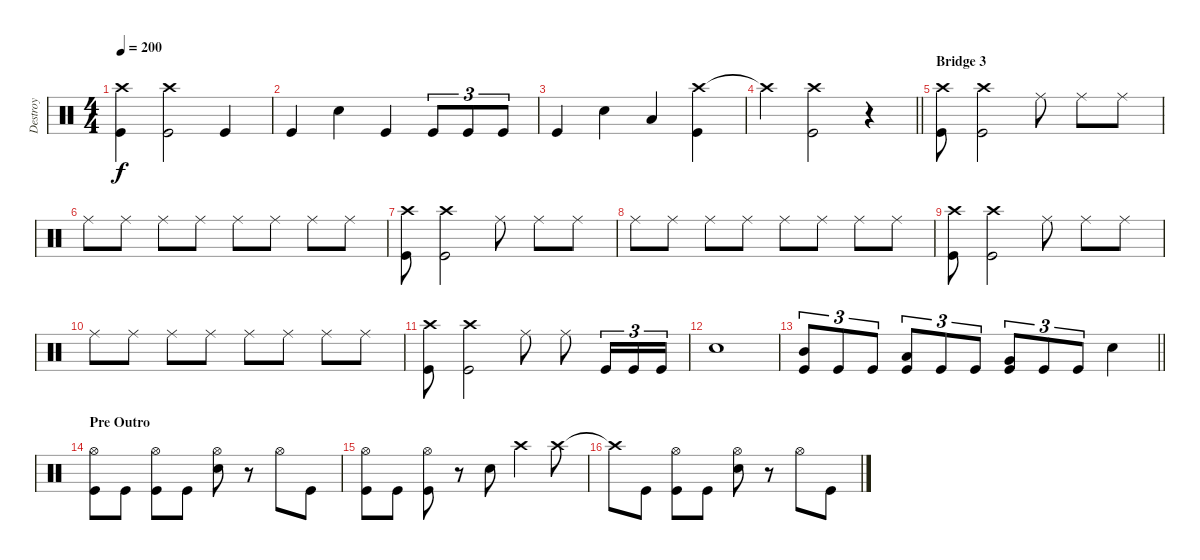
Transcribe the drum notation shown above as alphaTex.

\track ("Destroy" "Destroy") {instrument percussion}
\staff {score}
\articulation defaults
\ts (4 4)
\tempo 200
\clef neutral
\ks c
("Crash high (hit)" "Kick (hit)").4{dy f} ("Crash high (hit)" "Kick (hit)").2 "Kick (hit)".4 |
"Kick (hit)".4 "Snare (hit) 2".4 "Kick (hit)".4 "Kick (hit)".8{tu (3 2)} "Kick (hit)".8{tu (3 2)} "Kick (hit)".8{tu (3 2)} |
"Kick (hit)".4 "Snare (hit) 2".4 "Low Tom (hit)".4 ("Crash high (hit)" "Kick (hit)").4 |
\barLineRight lightlight "Crash high (hit)"{t}.4
("Crash high (hit)" "Kick (hit)").2 r.4 |
\section ("" "Bridge 3")
("Crash high (hit)" "Kick (hit)").8 ("Crash high (hit)" "Kick (hit)").2 "Ride (middle)".8 "Ride (middle)".8 "Ride (middle)".8 |
"Ride (middle)".8 "Ride (middle)".8 "Ride (middle)".8 "Ride (middle)".8 "Ride (middle)".8 "Ride (middle)".8 "Ride (middle)".8 "Ride (middle)".8 |
("Crash high (hit)" "Kick (hit)").8 ("Crash high (hit)" "Kick (hit)").2 "Ride (middle)".8 "Ride (middle)".8 "Ride (middle)".8 |
"Ride (middle)".8 "Ride (middle)".8 "Ride (middle)".8 "Ride (middle)".8 "Ride (middle)".8 "Ride (middle)".8 "Ride (middle)".8 "Ride (middle)".8 |
("Crash high (hit)" "Kick (hit)").8 ("Crash high (hit)" "Kick (hit)").2 "Ride (middle)".8 "Ride (middle)".8 "Ride (middle)".8 |
"Ride (middle)".8 "Ride (middle)".8 "Ride (middle)".8 "Ride (middle)".8 "Ride (middle)".8 "Ride (middle)".8 "Ride (middle)".8 "Ride (middle)".8 |
("Crash high (hit)" "Kick (hit)").8 ("Crash high (hit)" "Kick (hit)").2 "Ride (middle)".8 "Ride (middle)".8 "Kick (hit)".16{tu (3 2)} "Kick (hit)".16{tu (3 2)} "Kick (hit)".16{tu (3 2)} |
"Snare (hit) 2".1 |
\barLineRight lightlight
("Mid Tom (hit)" "Kick (hit)").8{tu (3 2)} "Kick (hit)".8{tu (3 2)} "Kick (hit)".8{tu (3 2)} ("Low Tom (hit)" "Kick (hit)").8{tu (3 2)} "Kick (hit)".8{tu (3 2)} "Kick (hit)".8{tu (3 2)} ("Very Low Tom (hit)" "Kick (hit)").8{tu (3 2)} "Kick (hit)".8{tu (3 2)} "Kick (hit)".8{tu (3 2)} "Snare (hit) 2".4 |
\section ("" "Pre Outro")
("Hi-Hat (open)" "Kick (hit)").8 "Kick (hit)".8 ("Hi-Hat (open)" "Kick (hit)").8 "Kick (hit)".8 ("Hi-Hat (open)" "Snare (hit) 2").8 r.8 "Hi-Hat (open)".8 "Kick (hit)".8 |
("Hi-Hat (open)" "Kick (hit)").8 "Kick (hit)".8 ("Hi-Hat (open)" "Kick (hit)").8 r.8 "Snare (hit) 2".8 "Crash high (hit)".4 "Crash high (hit)".8 |
"Crash high (hit)"{t}.8 "Kick (hit)".8 ("Hi-Hat (open)" "Kick (hit)").8 "Kick (hit)".8 ("Hi-Hat (open)" "Snare (hit) 2").8 r.8 "Hi-Hat (open)".8 "Kick (hit)".8
